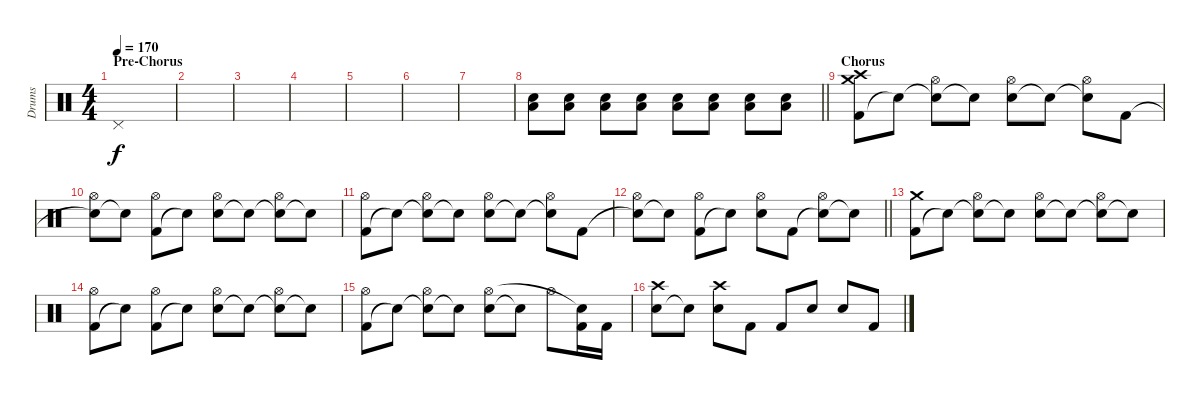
\track ("Drums" "Drums") {instrument percussion}
\staff {score}
\articulation defaults
\ts (4 4)
\section ("" "Pre-Chorus")
\tempo 170
\clef neutral
\ks c "Pedal Hi-Hat (hit)".1{dy f}
|
|
|
|
|
|
|
\barLineRight lightlight
("Electric Snare (hit)" "Low Floor Tom (hit)").8 ("Electric Snare (hit)" "Low Floor Tom (hit)").8 ("Electric Snare (hit)" "Low Floor Tom (hit)").8 ("Electric Snare (hit)" "Low Floor Tom (hit)").8 ("Electric Snare (hit)" "Low Floor Tom (hit)").8 ("Electric Snare (hit)" "Low Floor Tom (hit)").8 ("Electric Snare (hit)" "Low Floor Tom (hit)").8 ("Electric Snare (hit)" "Low Floor Tom (hit)").8 |
\section ("" "Chorus")
("Kick (hit) 2" "Crash medium (hit)" "Crash high (hit)").8 "Snare (hit)"{t}.8 ("Snare (hit)"{t} "Hi-Hat (open)").8 "Snare (hit)"{t}.8 ("Electric Snare (hit)" "Hi-Hat (open)").8 "Snare (hit)"{t}.8 ("Snare (hit)"{t} "Hi-Hat (open)").8 "Kick (hit) 2".8 |
("Snare (hit)"{t} "Hi-Hat (open)").8 "Snare (hit)"{t}.8 ("Kick (hit) 2" "Hi-Hat (open)").8 "Snare (hit)"{t}.8 ("Electric Snare (hit)" "Hi-Hat (open)").8 "Snare (hit)"{t}.8 ("Snare (hit)"{t} "Hi-Hat (open)").8 "Snare (hit)"{t}.8 |
("Kick (hit) 2" "Hi-Hat (open)").8 "Snare (hit)"{t}.8 ("Snare (hit)"{t} "Hi-Hat (open)").8 "Snare (hit)"{t}.8 ("Electric Snare (hit)" "Hi-Hat (open)").8 "Snare (hit)"{t}.8 ("Snare (hit)"{t} "Hi-Hat (open)").8 "Kick (hit) 2".8 |
\barLineRight lightlight
("Snare (hit)"{t} "Hi-Hat (open)").8 "Snare (hit)"{t}.8 ("Kick (hit) 2" "Hi-Hat (open)").8 "Snare (hit)"{t}.8 ("Electric Snare (hit)" "Hi-Hat (open)").8 "Kick (hit) 2".8 ("Snare (hit)"{t} "Hi-Hat (open)").8 "Snare (hit)"{t}.8 |
("Kick (hit) 2" "Crash medium (hit)").8 "Snare (hit)"{t}.8 ("Snare (hit)"{t} "Hi-Hat (open)").8 "Snare (hit)"{t}.8 ("Electric Snare (hit)" "Hi-Hat (open)").8 "Snare (hit)"{t}.8 ("Snare (hit)"{t} "Hi-Hat (open)").8 "Snare (hit)"{t}.8 |
("Kick (hit) 2" "Hi-Hat (open)").8 "Snare (hit)"{t}.8 ("Kick (hit) 2" "Hi-Hat (open)").8 "Snare (hit)"{t}.8 ("Electric Snare (hit)" "Hi-Hat (open)").8 "Snare (hit)"{t}.8 ("Snare (hit)"{t} "Hi-Hat (open)").8 "Snare (hit)"{t}.8 |
("Kick (hit) 2" "Hi-Hat (open)").8 "Snare (hit)"{t}.8 ("Snare (hit)"{t} "Hi-Hat (open)").8 "Snare (hit)"{t}.8 ("Electric Snare (hit)" "Hi-Hat (open)").8 "Snare (hit)"{t}.8 "Hi-Hat (open)".8 ("Kick (hit) 2" "Snare (hit)"{t}).16 "Kick (hit) 2".16 |
("Electric Snare (hit)" "Crash high (hit)").8 "Snare (hit)"{t}.8 ("Electric Snare (hit)" "Crash high (hit)").8 "Kick (hit) 2".8 "Kick (hit) 2".8 "Electric Snare (hit)".8 "Electric Snare (hit)".8 "Kick (hit) 2".8
